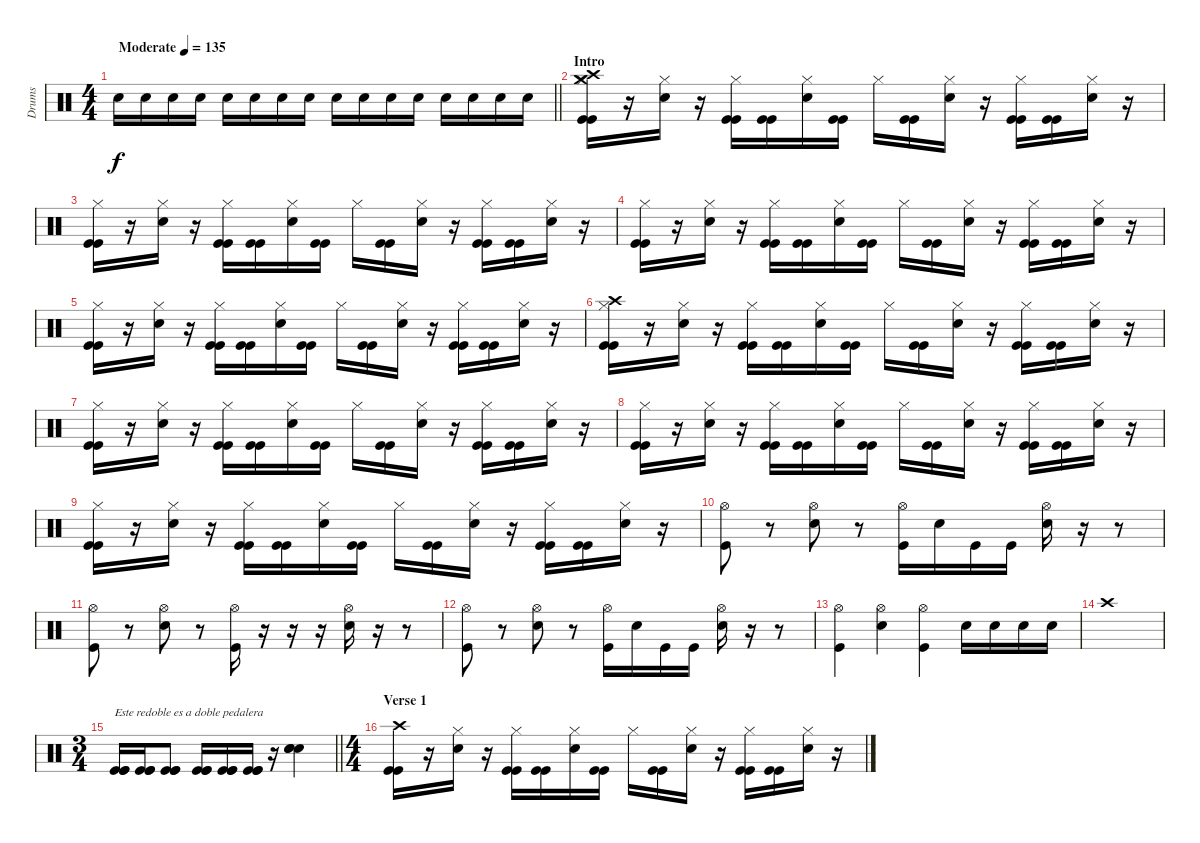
\track ("Drums" "Drums") {instrument percussion}
\staff {score}
\articulation defaults
\ts (4 4)
\tempo (135 "Moderate")
\clef neutral
\barLineRight lightlight
\ks c "Snare (hit) 2".16{dy f} "Snare (hit) 2".16 "Snare (hit) 2".16 "Snare (hit) 2".16 "Snare (hit) 2".16 "Snare (hit) 2".16 "Snare (hit) 2".16 "Snare (hit) 2".16 "Snare (hit) 2".16 "Snare (hit) 2".16 "Snare (hit) 2".16 "Snare (hit) 2".16 "Snare (hit) 2".16 "Snare (hit) 2".16 "Snare (hit) 2".16 "Snare (hit) 2".16
|
\section ("" "Intro")
("Crash medium (hit)" "Crash high (hit)" "Hi-Hat (closed)" "Kick (hit)" "Kick (hit)").16 r.16 ("Hi-Hat (closed)" "Snare (hit) 2").16 r.16 ("Hi-Hat (closed)" "Kick (hit)" "Kick (hit)").16 ("Kick (hit)" "Kick (hit)").16 ("Hi-Hat (closed)" "Snare (hit) 2").16 ("Kick (hit)" "Kick (hit)").16 "Hi-Hat (closed)".16 ("Kick (hit)" "Kick (hit)").16 ("Hi-Hat (closed)" "Snare (hit) 2").16 r.16 ("Hi-Hat (closed)" "Kick (hit)" "Kick (hit)").16 ("Kick (hit)" "Kick (hit)").16 ("Hi-Hat (closed)" "Snare (hit) 2").16 r.16 |
("Hi-Hat (closed)" "Kick (hit)" "Kick (hit)").16 r.16 ("Hi-Hat (closed)" "Snare (hit) 2").16 r.16 ("Hi-Hat (closed)" "Kick (hit)" "Kick (hit)").16 ("Kick (hit)" "Kick (hit)").16 ("Hi-Hat (closed)" "Snare (hit) 2").16 ("Kick (hit)" "Kick (hit)").16 "Hi-Hat (closed)".16 ("Kick (hit)" "Kick (hit)").16 ("Hi-Hat (closed)" "Snare (hit) 2").16 r.16 ("Hi-Hat (closed)" "Kick (hit)" "Kick (hit)").16 ("Kick (hit)" "Kick (hit)").16 ("Hi-Hat (closed)" "Snare (hit) 2").16 r.16 |
("Hi-Hat (closed)" "Kick (hit)" "Kick (hit)").16 r.16 ("Hi-Hat (closed)" "Snare (hit) 2").16 r.16 ("Hi-Hat (closed)" "Kick (hit)" "Kick (hit)").16 ("Kick (hit)" "Kick (hit)").16 ("Hi-Hat (closed)" "Snare (hit) 2").16 ("Kick (hit)" "Kick (hit)").16 "Hi-Hat (closed)".16 ("Kick (hit)" "Kick (hit)").16 ("Hi-Hat (closed)" "Snare (hit) 2").16 r.16 ("Hi-Hat (closed)" "Kick (hit)" "Kick (hit)").16 ("Kick (hit)" "Kick (hit)").16 ("Hi-Hat (closed)" "Snare (hit) 2").16 r.16 |
("Hi-Hat (closed)" "Kick (hit)" "Kick (hit)").16 r.16 ("Hi-Hat (closed)" "Snare (hit) 2").16 r.16 ("Hi-Hat (closed)" "Kick (hit)" "Kick (hit)").16 ("Kick (hit)" "Kick (hit)").16 ("Hi-Hat (closed)" "Snare (hit) 2").16 ("Kick (hit)" "Kick (hit)").16 "Hi-Hat (closed)".16 ("Kick (hit)" "Kick (hit)").16 ("Hi-Hat (closed)" "Snare (hit) 2").16 r.16 ("Hi-Hat (closed)" "Kick (hit)" "Kick (hit)").16 ("Kick (hit)" "Kick (hit)").16 ("Hi-Hat (closed)" "Snare (hit) 2").16 r.16 |
("Crash high (hit)" "Hi-Hat (closed)" "Kick (hit)" "Kick (hit)").16 r.16 ("Hi-Hat (closed)" "Snare (hit) 2").16 r.16 ("Hi-Hat (closed)" "Kick (hit)" "Kick (hit)").16 ("Kick (hit)" "Kick (hit)").16 ("Hi-Hat (closed)" "Snare (hit) 2").16 ("Kick (hit)" "Kick (hit)").16 "Hi-Hat (closed)".16 ("Kick (hit)" "Kick (hit)").16 ("Hi-Hat (closed)" "Snare (hit) 2").16 r.16 ("Hi-Hat (closed)" "Kick (hit)" "Kick (hit)").16 ("Kick (hit)" "Kick (hit)").16 ("Hi-Hat (closed)" "Snare (hit) 2").16 r.16 |
("Hi-Hat (closed)" "Kick (hit)" "Kick (hit)").16 r.16 ("Hi-Hat (closed)" "Snare (hit) 2").16 r.16 ("Hi-Hat (closed)" "Kick (hit)" "Kick (hit)").16 ("Kick (hit)" "Kick (hit)").16 ("Hi-Hat (closed)" "Snare (hit) 2").16 ("Kick (hit)" "Kick (hit)").16 "Hi-Hat (closed)".16 ("Kick (hit)" "Kick (hit)").16 ("Hi-Hat (closed)" "Snare (hit) 2").16 r.16 ("Hi-Hat (closed)" "Kick (hit)" "Kick (hit)").16 ("Kick (hit)" "Kick (hit)").16 ("Hi-Hat (closed)" "Snare (hit) 2").16 r.16 |
("Hi-Hat (closed)" "Kick (hit)" "Kick (hit)").16 r.16 ("Hi-Hat (closed)" "Snare (hit) 2").16 r.16 ("Hi-Hat (closed)" "Kick (hit)" "Kick (hit)").16 ("Kick (hit)" "Kick (hit)").16 ("Hi-Hat (closed)" "Snare (hit) 2").16 ("Kick (hit)" "Kick (hit)").16 "Hi-Hat (closed)".16 ("Kick (hit)" "Kick (hit)").16 ("Hi-Hat (closed)" "Snare (hit) 2").16 r.16 ("Hi-Hat (closed)" "Kick (hit)" "Kick (hit)").16 ("Kick (hit)" "Kick (hit)").16 ("Hi-Hat (closed)" "Snare (hit) 2").16 r.16 |
("Hi-Hat (closed)" "Kick (hit)" "Kick (hit)").16 r.16 ("Hi-Hat (closed)" "Snare (hit) 2").16 r.16 ("Hi-Hat (closed)" "Kick (hit)" "Kick (hit)").16 ("Kick (hit)" "Kick (hit)").16 ("Hi-Hat (closed)" "Snare (hit) 2").16 ("Kick (hit)" "Kick (hit)").16 "Hi-Hat (closed)".16 ("Kick (hit)" "Kick (hit)").16 ("Hi-Hat (closed)" "Snare (hit) 2").16 r.16 ("Hi-Hat (closed)" "Kick (hit)" "Kick (hit)").16 ("Kick (hit)" "Kick (hit)").16 ("Hi-Hat (closed)" "Snare (hit) 2").16 r.16 |
("Hi-Hat (open)" "Kick (hit)").8 r.8 ("Hi-Hat (open)" "Electric Snare (hit)").8 r.8 ("Hi-Hat (open)" "Kick (hit)").16 "Snare (hit) 2".16 "Kick (hit)".16 "Kick (hit)".16 ("Hi-Hat (open)" "Snare (hit) 2").16 r.16 r.8 |
("Hi-Hat (open)" "Kick (hit)").8 r.8 ("Hi-Hat (open)" "Electric Snare (hit)").8 r.8 ("Hi-Hat (open)" "Kick (hit)").16 r.16 r.16 r.16 ("Hi-Hat (open)" "Snare (hit) 2").16 r.16 r.8 |
("Hi-Hat (open)" "Kick (hit)").8 r.8 ("Hi-Hat (open)" "Electric Snare (hit)").8 r.8 ("Hi-Hat (open)" "Kick (hit)").16 "Snare (hit) 2".16 "Kick (hit)".16 "Kick (hit)".16 ("Hi-Hat (open)" "Snare (hit) 2").16 r.16 r.8 |
("Hi-Hat (open)" "Kick (hit)").4 ("Hi-Hat (open)" "Snare (hit) 2").4 ("Hi-Hat (open)" "Kick (hit)").4 "Snare (hit) 2".16 "Snare (hit) 2".16 "Snare (hit) 2".16 "Snare (hit) 2".16 |
"Crash high (hit)".1 |
\ts (3 4)
\barLineRight lightlight
("Kick (hit)" "Kick (hit)" "Kick (hit)").16{txt "Este redoble es a doble pedalera"} ("Kick (hit)" "Kick (hit)" "Kick (hit)").16 ("Kick (hit)" "Kick (hit)" "Kick (hit)").8 ("Kick (hit)" "Kick (hit)" "Kick (hit)").16 ("Kick (hit)" "Kick (hit)" "Kick (hit)").16 ("Kick (hit)" "Kick (hit)" "Kick (hit)").16 r.16 ("Snare (hit) 2" "Snare (hit) 2" "Snare (hit) 2").4 |
\ts (4 4)
\section ("" "Verse 1")
("Crash high (hit)" "Kick (hit)" "Kick (hit)").16 r.16 ("Hi-Hat (closed)" "Snare (hit) 2").16 r.16 ("Hi-Hat (closed)" "Kick (hit)" "Kick (hit)").16 ("Kick (hit)" "Kick (hit)").16 ("Hi-Hat (closed)" "Snare (hit) 2").16 ("Kick (hit)" "Kick (hit)").16 "Hi-Hat (closed)".16 ("Kick (hit)" "Kick (hit)").16 ("Hi-Hat (closed)" "Snare (hit) 2").16 r.16 ("Hi-Hat (closed)" "Kick (hit)" "Kick (hit)").16 ("Kick (hit)" "Kick (hit)").16 ("Hi-Hat (closed)" "Snare (hit) 2").16 r.16
